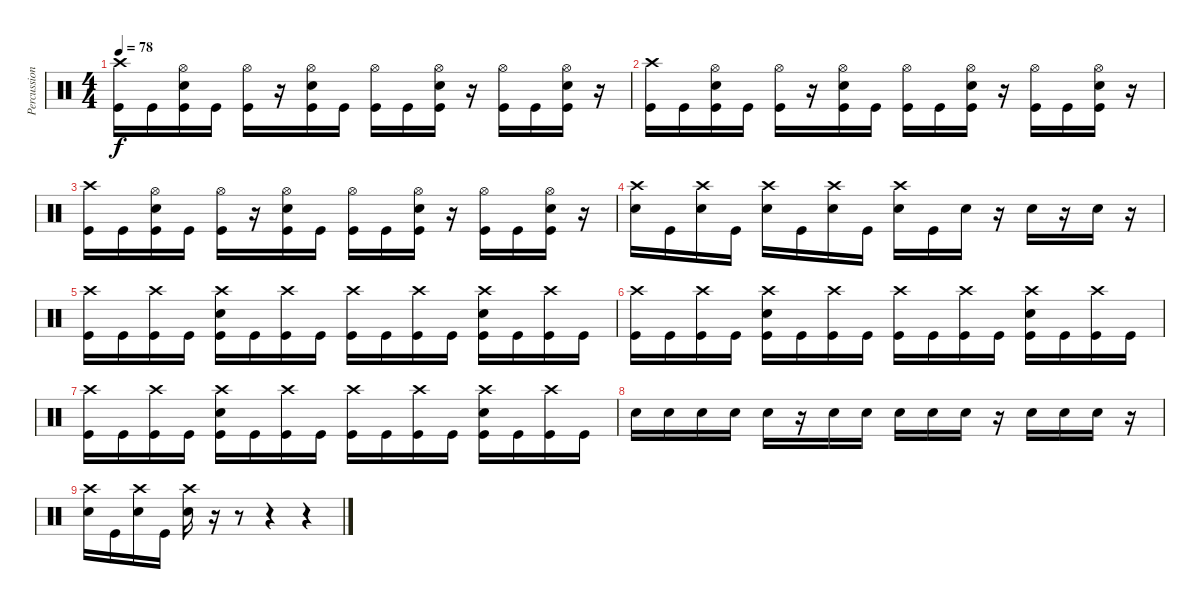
\track ("Percussion" "Percussion") {instrument percussion}
\staff {score}
\articulation defaults
\ts (4 4)
\tempo 78
\clef neutral
\ks c
("Crash high (hit)" "Kick (hit)").16{dy f} "Kick (hit)".16 ("Hi-Hat (open)" "Snare (hit) 2" "Kick (hit)").16 "Kick (hit)".16 ("Hi-Hat (open)" "Kick (hit)").16 r.16 ("Hi-Hat (open)" "Snare (hit) 2" "Kick (hit)").16 "Kick (hit)".16 ("Hi-Hat (open)" "Kick (hit)").16 "Kick (hit)".16 ("Hi-Hat (open)" "Snare (hit) 2" "Kick (hit)").16 r.16 ("Hi-Hat (open)" "Kick (hit)").16 "Kick (hit)".16 ("Hi-Hat (open)" "Snare (hit) 2" "Kick (hit)").16 r.16 |
("Crash high (hit)" "Kick (hit)").16 "Kick (hit)".16 ("Hi-Hat (open)" "Snare (hit) 2" "Kick (hit)").16 "Kick (hit)".16 ("Hi-Hat (open)" "Kick (hit)").16 r.16 ("Hi-Hat (open)" "Snare (hit) 2" "Kick (hit)").16 "Kick (hit)".16 ("Hi-Hat (open)" "Kick (hit)").16 "Kick (hit)".16 ("Hi-Hat (open)" "Snare (hit) 2" "Kick (hit)").16 r.16 ("Hi-Hat (open)" "Kick (hit)").16 "Kick (hit)".16 ("Hi-Hat (open)" "Snare (hit) 2" "Kick (hit)").16 r.16 |
("Crash high (hit)" "Kick (hit)").16 "Kick (hit)".16 ("Hi-Hat (open)" "Snare (hit) 2" "Kick (hit)").16 "Kick (hit)".16 ("Hi-Hat (open)" "Kick (hit)").16 r.16 ("Hi-Hat (open)" "Snare (hit) 2" "Kick (hit)").16 "Kick (hit)".16 ("Hi-Hat (open)" "Kick (hit)").16 "Kick (hit)".16 ("Hi-Hat (open)" "Snare (hit) 2" "Kick (hit)").16 r.16 ("Hi-Hat (open)" "Kick (hit)").16 "Kick (hit)".16 ("Hi-Hat (open)" "Snare (hit) 2" "Kick (hit)").16 r.16 |
("Crash high (hit)" "Snare (hit) 2").16 "Kick (hit)".16 ("Crash high (hit)" "Snare (hit) 2").16 "Kick (hit)".16 ("Crash high (hit)" "Snare (hit) 2").16 "Kick (hit)".16 ("Crash high (hit)" "Snare (hit) 2").16 "Kick (hit)".16 ("Crash high (hit)" "Snare (hit) 2").16{volume 16} "Kick (hit)".16 "Snare (hit) 2".16 r.16 "Snare (hit) 2".16 r.16 "Snare (hit) 2".16 r.16 |
("Crash high (hit)" "Kick (hit)").16 "Kick (hit)".16 ("Crash high (hit)" "Kick (hit)").16 "Kick (hit)".16 ("Crash high (hit)" "Snare (hit) 2" "Kick (hit)").16 "Kick (hit)".16 ("Crash high (hit)" "Kick (hit)").16 "Kick (hit)".16 ("Crash high (hit)" "Kick (hit)").16 "Kick (hit)".16 ("Crash high (hit)" "Kick (hit)").16 "Kick (hit)".16 ("Crash high (hit)" "Snare (hit) 2" "Kick (hit)").16 "Kick (hit)".16 ("Crash high (hit)" "Kick (hit)").16 "Kick (hit)".16 |
("Crash high (hit)" "Kick (hit)").16 "Kick (hit)".16 ("Crash high (hit)" "Kick (hit)").16 "Kick (hit)".16 ("Crash high (hit)" "Snare (hit) 2" "Kick (hit)").16 "Kick (hit)".16 ("Crash high (hit)" "Kick (hit)").16 "Kick (hit)".16 ("Crash high (hit)" "Kick (hit)").16 "Kick (hit)".16 ("Crash high (hit)" "Kick (hit)").16 "Kick (hit)".16 ("Crash high (hit)" "Snare (hit) 2" "Kick (hit)").16 "Kick (hit)".16 ("Crash high (hit)" "Kick (hit)").16 "Kick (hit)".16 |
("Crash high (hit)" "Kick (hit)").16 "Kick (hit)".16 ("Crash high (hit)" "Kick (hit)").16 "Kick (hit)".16 ("Crash high (hit)" "Snare (hit) 2" "Kick (hit)").16 "Kick (hit)".16 ("Crash high (hit)" "Kick (hit)").16 "Kick (hit)".16 ("Crash high (hit)" "Kick (hit)").16 "Kick (hit)".16 ("Crash high (hit)" "Kick (hit)").16 "Kick (hit)".16 ("Crash high (hit)" "Snare (hit) 2" "Kick (hit)").16 "Kick (hit)".16 ("Crash high (hit)" "Kick (hit)").16 "Kick (hit)".16 |
"Snare (hit) 2".16 "Snare (hit) 2".16 "Snare (hit) 2".16 "Snare (hit) 2".16 "Snare (hit) 2".16 r.16 "Snare (hit) 2".16 "Snare (hit) 2".16 "Snare (hit) 2".16 "Snare (hit) 2".16 "Snare (hit) 2".16 r.16 "Snare (hit) 2".16 "Snare (hit) 2".16 "Snare (hit) 2".16 r.16 |
("Crash high (hit)" "Snare (hit) 2").16 "Kick (hit)".16 ("Crash high (hit)" "Snare (hit) 2").16 "Kick (hit)".16 ("Crash high (hit)" "Snare (hit) 2").16 r.16 r.8 r.4 r.4
